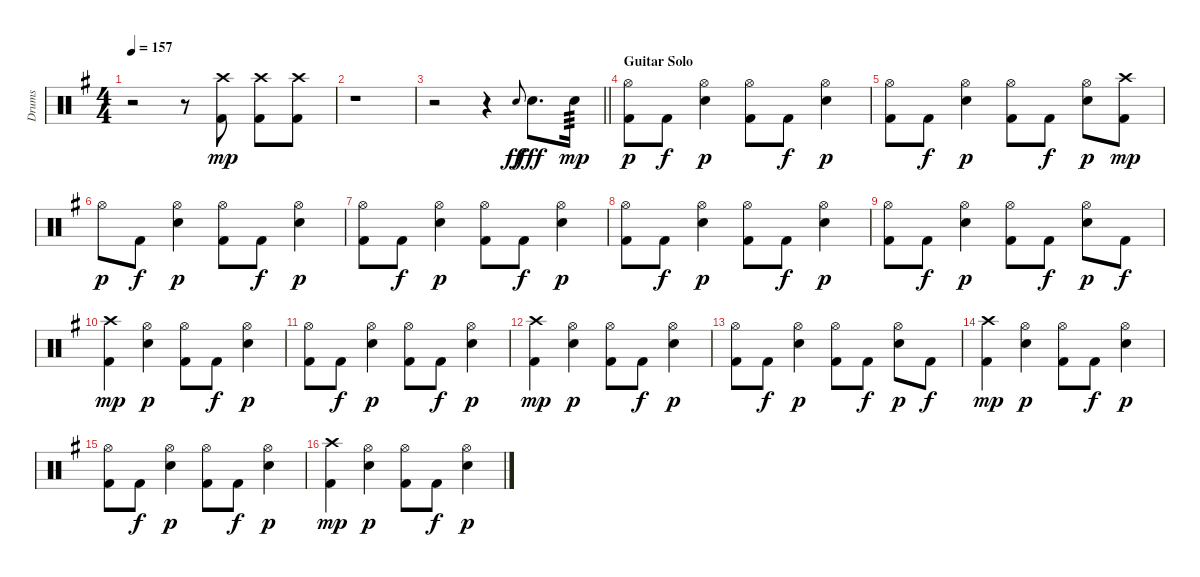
\track ("Drums" "Drums") {instrument percussion}
\staff {score}
\articulation defaults
\ts (4 4)
\tempo 157
\clef neutral
\ks g
r.2{dy mf} r.8 ("Kick (hit) 2" "Crash high (hit)").8{dy mp volume 16} ("Kick (hit) 2" "Crash high (hit)").8 ("Kick (hit) 2" "Crash high (hit)").8{volume 0} |
r.1 |
\barLineRight lightlight
r.2 r.4 "Electric Snare (hit)".8{gr onbeat dy ff} "Electric Snare (hit)".8{d dy fff volume 16} "Electric Snare (hit)".16{tp 3 dy mp} |
\section ("" "Guitar Solo")
("Kick (hit) 2" "Hi-Hat (open)").8{dy p} "Kick (hit) 2".8{dy f} ("Electric Snare (hit)" "Hi-Hat (open)").4{dy p} ("Kick (hit) 2" "Hi-Hat (open)").8 "Kick (hit) 2".8{dy f} ("Electric Snare (hit)" "Hi-Hat (open)").4{dy p} |
("Kick (hit) 2" "Hi-Hat (open)").8 "Kick (hit) 2".8{dy f} ("Electric Snare (hit)" "Hi-Hat (open)").4{dy p} ("Kick (hit) 2" "Hi-Hat (open)").8 "Kick (hit) 2".8{dy f} ("Electric Snare (hit)" "Hi-Hat (open)").8{dy p} ("Kick (hit) 2" "Crash high (hit)").8{dy mp} |
"Hi-Hat (open)".8{dy p} "Kick (hit) 2".8{dy f} ("Electric Snare (hit)" "Hi-Hat (open)").4{dy p} ("Kick (hit) 2" "Hi-Hat (open)").8 "Kick (hit) 2".8{dy f} ("Electric Snare (hit)" "Hi-Hat (open)").4{dy p} |
("Kick (hit) 2" "Hi-Hat (open)").8 "Kick (hit) 2".8{dy f} ("Electric Snare (hit)" "Hi-Hat (open)").4{dy p} ("Kick (hit) 2" "Hi-Hat (open)").8 "Kick (hit) 2".8{dy f} ("Electric Snare (hit)" "Hi-Hat (open)").4{dy p} |
("Kick (hit) 2" "Hi-Hat (open)").8 "Kick (hit) 2".8{dy f} ("Electric Snare (hit)" "Hi-Hat (open)").4{dy p} ("Kick (hit) 2" "Hi-Hat (open)").8 "Kick (hit) 2".8{dy f} ("Electric Snare (hit)" "Hi-Hat (open)").4{dy p} |
("Kick (hit) 2" "Hi-Hat (open)").8 "Kick (hit) 2".8{dy f} ("Electric Snare (hit)" "Hi-Hat (open)").4{dy p} ("Kick (hit) 2" "Hi-Hat (open)").8 "Kick (hit) 2".8{dy f} ("Electric Snare (hit)" "Hi-Hat (open)").8{dy p} "Kick (hit) 2".8{dy f} |
("Kick (hit) 2" "Crash high (hit)").4{dy mp} ("Electric Snare (hit)" "Hi-Hat (open)").4{dy p} ("Kick (hit) 2" "Hi-Hat (open)").8 "Kick (hit) 2".8{dy f} ("Electric Snare (hit)" "Hi-Hat (open)").4{dy p} |
("Kick (hit) 2" "Hi-Hat (open)").8 "Kick (hit) 2".8{dy f} ("Electric Snare (hit)" "Hi-Hat (open)").4{dy p} ("Kick (hit) 2" "Hi-Hat (open)").8 "Kick (hit) 2".8{dy f} ("Electric Snare (hit)" "Hi-Hat (open)").4{dy p} |
("Kick (hit) 2" "Crash high (hit)").4{dy mp} ("Electric Snare (hit)" "Hi-Hat (open)").4{dy p} ("Kick (hit) 2" "Hi-Hat (open)").8 "Kick (hit) 2".8{dy f} ("Electric Snare (hit)" "Hi-Hat (open)").4{dy p} |
("Kick (hit) 2" "Hi-Hat (open)").8 "Kick (hit) 2".8{dy f} ("Electric Snare (hit)" "Hi-Hat (open)").4{dy p} ("Kick (hit) 2" "Hi-Hat (open)").8 "Kick (hit) 2".8{dy f} ("Electric Snare (hit)" "Hi-Hat (open)").8{dy p} "Kick (hit) 2".8{dy f} |
("Kick (hit) 2" "Crash high (hit)").4{dy mp} ("Electric Snare (hit)" "Hi-Hat (open)").4{dy p} ("Kick (hit) 2" "Hi-Hat (open)").8 "Kick (hit) 2".8{dy f} ("Electric Snare (hit)" "Hi-Hat (open)").4{dy p} |
("Kick (hit) 2" "Hi-Hat (open)").8 "Kick (hit) 2".8{dy f} ("Electric Snare (hit)" "Hi-Hat (open)").4{dy p} ("Kick (hit) 2" "Hi-Hat (open)").8 "Kick (hit) 2".8{dy f} ("Electric Snare (hit)" "Hi-Hat (open)").4{dy p} |
("Kick (hit) 2" "Crash high (hit)").4{dy mp} ("Electric Snare (hit)" "Hi-Hat (open)").4{dy p} ("Kick (hit) 2" "Hi-Hat (open)").8 "Kick (hit) 2".8{dy f} ("Electric Snare (hit)" "Hi-Hat (open)").4{dy p}
